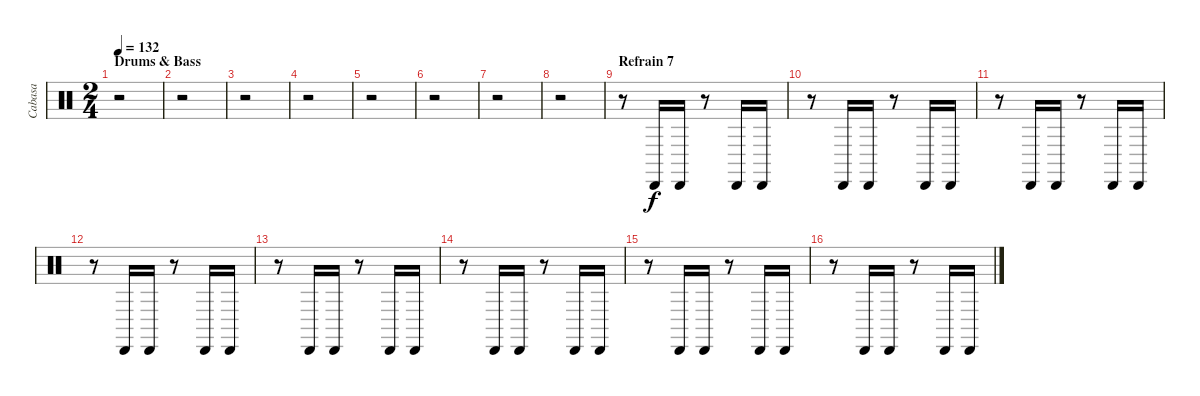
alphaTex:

\track ("Cabasa" "Cabasa") {instrument percussion}
\staff {score}
\articulation defaults
\ts (2 4)
\section ("" "Drums & Bass")
\tempo 132
\clef neutral
\ks c
r.2{dy f} |
r.2 |
r.2 |
r.2 |
r.2 |
r.2 |
r.2 |
r.2 |
\section ("" "Refrain 7")
r.8 "Cabasa (hit)".16 "Cabasa (hit)".16 r.8 "Cabasa (hit)".16 "Cabasa (hit)".16 |
r.8 "Cabasa (hit)".16 "Cabasa (hit)".16 r.8 "Cabasa (hit)".16 "Cabasa (hit)".16 |
r.8 "Cabasa (hit)".16 "Cabasa (hit)".16 r.8 "Cabasa (hit)".16 "Cabasa (hit)".16 |
r.8 "Cabasa (hit)".16 "Cabasa (hit)".16 r.8 "Cabasa (hit)".16 "Cabasa (hit)".16 |
r.8 "Cabasa (hit)".16 "Cabasa (hit)".16 r.8 "Cabasa (hit)".16 "Cabasa (hit)".16 |
r.8 "Cabasa (hit)".16 "Cabasa (hit)".16 r.8 "Cabasa (hit)".16 "Cabasa (hit)".16 |
r.8 "Cabasa (hit)".16 "Cabasa (hit)".16 r.8 "Cabasa (hit)".16 "Cabasa (hit)".16 |
r.8 "Cabasa (hit)".16 "Cabasa (hit)".16 r.8 "Cabasa (hit)".16 "Cabasa (hit)".16
